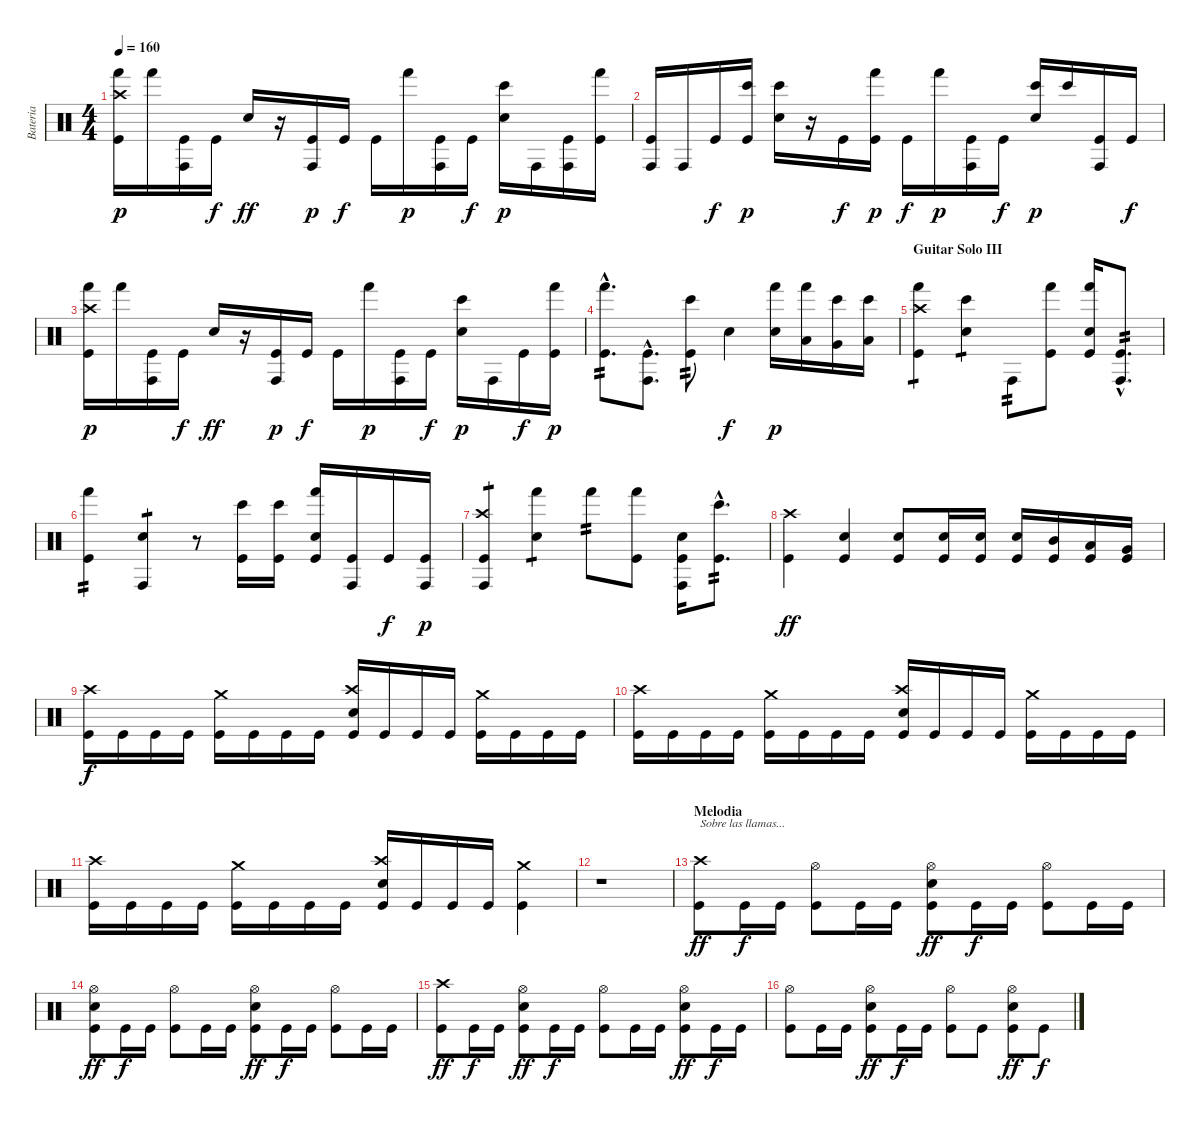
\track ("Bateria" "Bateria") {instrument percussion}
\staff {score}
\articulation defaults
\ts (4 4)
\tempo 160
\clef neutral
\ks c
("Kick (hit)" "Crash high (hit)" "Hand (hit)").16{dy p} "Hand (hit)".16 ("Kick (hit)" "Conga high (hit)").16 "Kick (hit)".16{dy f} "Electric Snare (hit)".16{dy ff} r.16 ("Kick (hit)" "Conga high (hit)").16{dy p} "Kick (hit)".16{dy f} "Kick (hit)".16 "Hand (hit)".16{dy p} ("Kick (hit)" "Conga high (hit)").16 "Kick (hit)".16{dy f} ("Electric Snare (hit)" "Bongo High (hit)").16{dy p} "Conga high (hit)".16 ("Kick (hit)" "Conga high (hit)").16 ("Kick (hit)" "Hand (hit)").16 |
("Kick (hit)" "Conga high (hit)").16 "Conga high (hit)".16 "Kick (hit)".16{dy f} ("Kick (hit)" "Bongo High (hit)").16{dy p} ("Electric Snare (hit)" "Bongo High (hit)").16 r.16 "Kick (hit)".16{dy f} ("Kick (hit)" "Hand (hit)").16{dy p} "Kick (hit)".16{dy f} "Hand (hit)".16{dy p} ("Kick (hit)" "Conga high (hit)").16 "Kick (hit)".16{dy f} ("Electric Snare (hit)" "Bongo High (hit)").16{dy p} "Bongo High (hit)".16 ("Kick (hit)" "Conga high (hit)").16 "Kick (hit)".16{dy f} |
("Kick (hit)" "Crash high (hit)" "Hand (hit)").16{dy p} "Hand (hit)".16 ("Kick (hit)" "Conga high (hit)").16 "Kick (hit)".16{dy f} "Electric Snare (hit)".16{dy ff} r.16 ("Kick (hit)" "Conga high (hit)").16{dy p} "Kick (hit)".16{dy f} "Kick (hit)".16 "Hand (hit)".16{dy p} ("Kick (hit)" "Conga high (hit)").16 "Kick (hit)".16{dy f} ("Electric Snare (hit)" "Bongo High (hit)").16{dy p} "Conga high (hit)".16 "Kick (hit)".16{dy f} ("Kick (hit)" "Hand (hit)").16{dy p} |
("Kick (hit)"{hac} "Hand (hit)"{hac}).8{d tp 2} ("Kick (hit)"{hac} "Conga high (hit)"{hac}).8{d} ("Kick (hit)" "Bongo High (hit)").8{tp 2} "Electric Snare (hit)".4{dy f} ("Electric Snare (hit)" "Hand (hit)").16{dy p} ("Low Tom (hit)" "Hand (hit)").16 ("Very Low Tom (hit)" "Bongo High (hit)").16 ("Low Floor Tom (hit)" "Bongo High (hit)").16 |
\section ("" "Guitar Solo III")
("Kick (hit)" "Crash high (hit)" "Hand (hit)").4{tp 1} ("Electric Snare (hit)" "Bongo High (hit)").4{tp 1} "Conga high (hit)".8{tp 2} ("Kick (hit)" "Hand (hit)").8 ("Kick (hit)" "Electric Snare (hit)" "Hand (hit)").16 ("Kick (hit)"{hac} "Conga high (hit)"{hac}).8{d tp 2} |
("Kick (hit)" "Hand (hit)").4{tp 2} ("Electric Snare (hit)" "Conga high (hit)").4{tp 1} r.8 ("Kick (hit)" "Bongo High (hit)").16 ("Kick (hit)" "Bongo High (hit)").16 ("Kick (hit)" "Electric Snare (hit)" "Hand (hit)").16 ("Kick (hit)" "Conga high (hit)").16 "Kick (hit)".16{dy f} ("Kick (hit)" "Conga high (hit)").16{dy p} |
("Kick (hit)" "Crash high (hit)" "Conga high (hit)").4{tp 1} ("Electric Snare (hit)" "Hand (hit)").4{tp 1} "Hand (hit)".8{tp 2} ("Kick (hit)" "Hand (hit)").8 ("Kick (hit)" "Electric Snare (hit)" "Conga high (hit)").16 ("Kick (hit)"{hac} "Bongo High (hit)"{hac}).8{d tp 2} |
("Kick (hit)" "Crash high (hit)").4{dy ff} ("Kick (hit)" "Electric Snare (hit)").4 ("Kick (hit)" "Electric Snare (hit)").8 ("Kick (hit)" "Electric Snare (hit)").16 ("Kick (hit)" "Electric Snare (hit)").16 ("Kick (hit)" "Electric Snare (hit)").16 ("Kick (hit)" "Mid Tom (hit)").16 ("Kick (hit)" "Low Tom (hit)").16 ("Kick (hit)" "Very Low Tom (hit)").16 |
("Kick (hit)" "Crash high (hit)").16{dy f} "Kick (hit)".16 "Kick (hit)".16 "Kick (hit)".16 ("Kick (hit)" "Crash medium (hit)").16 "Kick (hit)".16 "Kick (hit)".16 "Kick (hit)".16 ("Kick (hit)" "Electric Snare (hit)" "Crash high (hit)").16 "Kick (hit)".16 "Kick (hit)".16 "Kick (hit)".16 ("Kick (hit)" "Crash medium (hit)").16 "Kick (hit)".16 "Kick (hit)".16 "Kick (hit)".16 |
("Kick (hit)" "Crash high (hit)").16 "Kick (hit)".16 "Kick (hit)".16 "Kick (hit)".16 ("Kick (hit)" "Crash medium (hit)").16 "Kick (hit)".16 "Kick (hit)".16 "Kick (hit)".16 ("Kick (hit)" "Electric Snare (hit)" "Crash high (hit)").16 "Kick (hit)".16 "Kick (hit)".16 "Kick (hit)".16 ("Kick (hit)" "Crash medium (hit)").16 "Kick (hit)".16 "Kick (hit)".16 "Kick (hit)".16 |
("Kick (hit)" "Crash high (hit)").16 "Kick (hit)".16 "Kick (hit)".16 "Kick (hit)".16 ("Kick (hit)" "Crash medium (hit)").16 "Kick (hit)".16 "Kick (hit)".16 "Kick (hit)".16 ("Kick (hit)" "Electric Snare (hit)" "Crash high (hit)").16 "Kick (hit)".16 "Kick (hit)".16 "Kick (hit)".16 ("Kick (hit)" "Crash medium (hit)").4 |
r.1 |
\section ("" "Melodia")
("Kick (hit)" "Crash high (hit)").8{txt "Sobre las llamas..." dy ff} "Kick (hit)".16{dy f} "Kick (hit)".16 ("Kick (hit)" "Hi-Hat (open)").8 "Kick (hit)".16 "Kick (hit)".16 ("Kick (hit)" "Electric Snare (hit)" "Hi-Hat (open)").8{dy ff} "Kick (hit)".16{dy f} "Kick (hit)".16 ("Kick (hit)" "Hi-Hat (open)").8 "Kick (hit)".16 "Kick (hit)".16 |
("Kick (hit)" "Electric Snare (hit)" "Hi-Hat (open)").8{dy ff} "Kick (hit)".16{dy f} "Kick (hit)".16 ("Kick (hit)" "Hi-Hat (open)").8 "Kick (hit)".16 "Kick (hit)".16 ("Kick (hit)" "Electric Snare (hit)" "Hi-Hat (open)").8{dy ff} "Kick (hit)".16{dy f} "Kick (hit)".16 ("Kick (hit)" "Hi-Hat (open)").8 "Kick (hit)".16 "Kick (hit)".16 |
("Kick (hit)" "Crash high (hit)").8{dy ff} "Kick (hit)".16{dy f} "Kick (hit)".16 ("Kick (hit)" "Electric Snare (hit)" "Hi-Hat (open)").8{dy ff} "Kick (hit)".16{dy f} "Kick (hit)".16 ("Kick (hit)" "Hi-Hat (open)").8 "Kick (hit)".16 "Kick (hit)".16 ("Kick (hit)" "Electric Snare (hit)" "Hi-Hat (open)").8{dy ff} "Kick (hit)".16{dy f} "Kick (hit)".16 |
("Kick (hit)" "Hi-Hat (open)").8 "Kick (hit)".16 "Kick (hit)".16 ("Kick (hit)" "Electric Snare (hit)" "Hi-Hat (open)").8{dy ff} "Kick (hit)".16{dy f} "Kick (hit)".16 ("Kick (hit)" "Hi-Hat (open)").8 "Kick (hit)".8 ("Kick (hit)" "Electric Snare (hit)" "Hi-Hat (open)").8{dy ff} "Kick (hit)".8{dy f}
